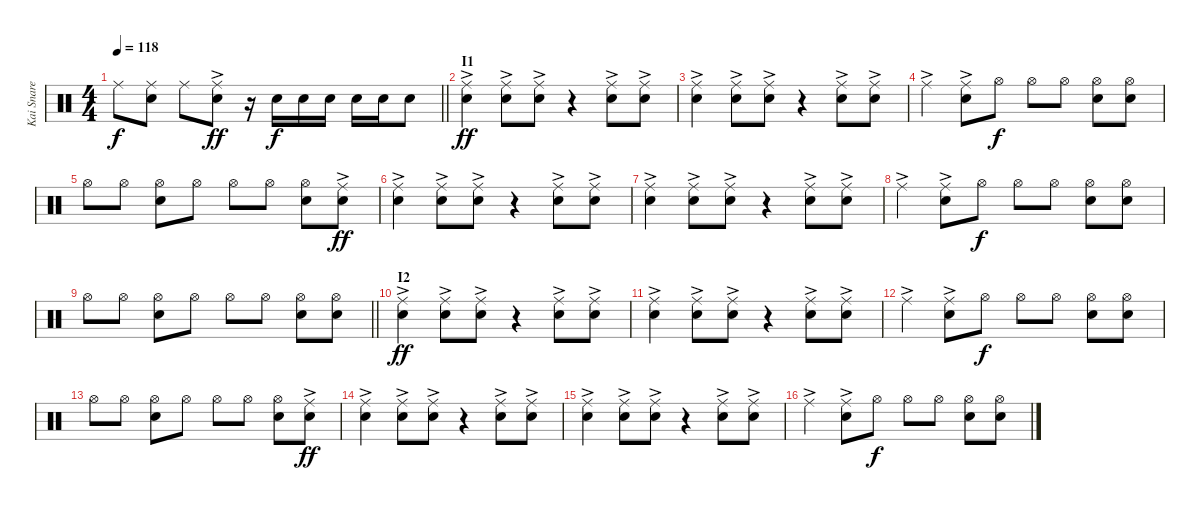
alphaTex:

\track ("Kai Snare" "Kai Snare") {instrument percussion}
\staff {score}
\articulation defaults
\ts (4 4)
\tempo 118
\clef neutral
\barLineRight lightlight
\ks c "Ride (middle)".8{dy f}
("Ride (middle)" "Snare (hit) 2").8 "Ride (middle)".8 ("Ride (middle)"{ac} "Snare (hit) 2").8{dy ff} r.16 "Snare (hit) 2".16{dy f} "Snare (hit) 2".16 "Snare (hit) 2".16 "Snare (hit) 2".16 "Snare (hit) 2".16 "Snare (hit) 2".8 |
\section ("" "I1")
("Ride (middle)"{ac} "Snare (hit) 2").4{dy ff} ("Ride (middle)"{ac} "Snare (hit) 2").8 ("Ride (middle)"{ac} "Snare (hit) 2").8 r.4 ("Ride (middle)"{ac} "Snare (hit) 2").8 ("Ride (middle)"{ac} "Snare (hit) 2").8 |
("Ride (middle)"{ac} "Snare (hit) 2").4 ("Ride (middle)"{ac} "Snare (hit) 2").8 ("Ride (middle)"{ac} "Snare (hit) 2").8 r.4 ("Ride (middle)"{ac} "Snare (hit) 2").8 ("Ride (middle)"{ac} "Snare (hit) 2").8 |
"Ride (middle)"{ac}.4 ("Ride (middle)"{ac} "Snare (hit) 2").8 "Hi-Hat (open)".8{dy f} "Hi-Hat (open)".8 "Hi-Hat (open)".8 ("Hi-Hat (open)" "Snare (hit) 2").8 ("Hi-Hat (open)" "Snare (hit) 2").8 |
"Hi-Hat (open)".8 "Hi-Hat (open)".8 ("Hi-Hat (open)" "Snare (hit) 2").8 "Hi-Hat (open)".8 "Hi-Hat (open)".8 "Hi-Hat (open)".8 ("Hi-Hat (open)" "Snare (hit) 2").8 ("Ride (middle)"{ac} "Snare (hit) 2").8{dy ff} |
("Ride (middle)"{ac} "Snare (hit) 2").4 ("Ride (middle)"{ac} "Snare (hit) 2").8 ("Ride (middle)"{ac} "Snare (hit) 2").8 r.4 ("Ride (middle)"{ac} "Snare (hit) 2").8 ("Ride (middle)"{ac} "Snare (hit) 2").8 |
("Ride (middle)"{ac} "Snare (hit) 2").4 ("Ride (middle)"{ac} "Snare (hit) 2").8 ("Ride (middle)"{ac} "Snare (hit) 2").8 r.4 ("Ride (middle)"{ac} "Snare (hit) 2").8 ("Ride (middle)"{ac} "Snare (hit) 2").8 |
"Ride (middle)"{ac}.4 ("Ride (middle)"{ac} "Snare (hit) 2").8 "Hi-Hat (open)".8{dy f} "Hi-Hat (open)".8 "Hi-Hat (open)".8 ("Hi-Hat (open)" "Snare (hit) 2").8 ("Hi-Hat (open)" "Snare (hit) 2").8 |
\barLineRight lightlight "Hi-Hat (open)".8 "Hi-Hat (open)".8
("Hi-Hat (open)" "Snare (hit) 2").8 "Hi-Hat (open)".8 "Hi-Hat (open)".8 "Hi-Hat (open)".8 ("Hi-Hat (open)" "Snare (hit) 2").8 ("Hi-Hat (open)" "Snare (hit) 2").8 |
\section ("" "I2")
("Ride (middle)"{ac} "Snare (hit) 2").4{dy ff} ("Ride (middle)"{ac} "Snare (hit) 2").8 ("Ride (middle)"{ac} "Snare (hit) 2").8 r.4 ("Ride (middle)"{ac} "Snare (hit) 2").8 ("Ride (middle)"{ac} "Snare (hit) 2").8 |
("Ride (middle)"{ac} "Snare (hit) 2").4 ("Ride (middle)"{ac} "Snare (hit) 2").8 ("Ride (middle)"{ac} "Snare (hit) 2").8 r.4 ("Ride (middle)"{ac} "Snare (hit) 2").8 ("Ride (middle)"{ac} "Snare (hit) 2").8 |
"Ride (middle)"{ac}.4 ("Ride (middle)"{ac} "Snare (hit) 2").8 "Hi-Hat (open)".8{dy f} "Hi-Hat (open)".8 "Hi-Hat (open)".8 ("Hi-Hat (open)" "Snare (hit) 2").8 ("Hi-Hat (open)" "Snare (hit) 2").8 |
"Hi-Hat (open)".8 "Hi-Hat (open)".8 ("Hi-Hat (open)" "Snare (hit) 2").8 "Hi-Hat (open)".8 "Hi-Hat (open)".8 "Hi-Hat (open)".8 ("Hi-Hat (open)" "Snare (hit) 2").8 ("Ride (middle)"{ac} "Snare (hit) 2").8{dy ff} |
("Ride (middle)"{ac} "Snare (hit) 2").4 ("Ride (middle)"{ac} "Snare (hit) 2").8 ("Ride (middle)"{ac} "Snare (hit) 2").8 r.4 ("Ride (middle)"{ac} "Snare (hit) 2").8 ("Ride (middle)"{ac} "Snare (hit) 2").8 |
("Ride (middle)"{ac} "Snare (hit) 2").4 ("Ride (middle)"{ac} "Snare (hit) 2").8 ("Ride (middle)"{ac} "Snare (hit) 2").8 r.4 ("Ride (middle)"{ac} "Snare (hit) 2").8 ("Ride (middle)"{ac} "Snare (hit) 2").8 |
"Ride (middle)"{ac}.4 ("Ride (middle)"{ac} "Snare (hit) 2").8 "Hi-Hat (open)".8{dy f} "Hi-Hat (open)".8 "Hi-Hat (open)".8 ("Hi-Hat (open)" "Snare (hit) 2").8 ("Hi-Hat (open)" "Snare (hit) 2").8
